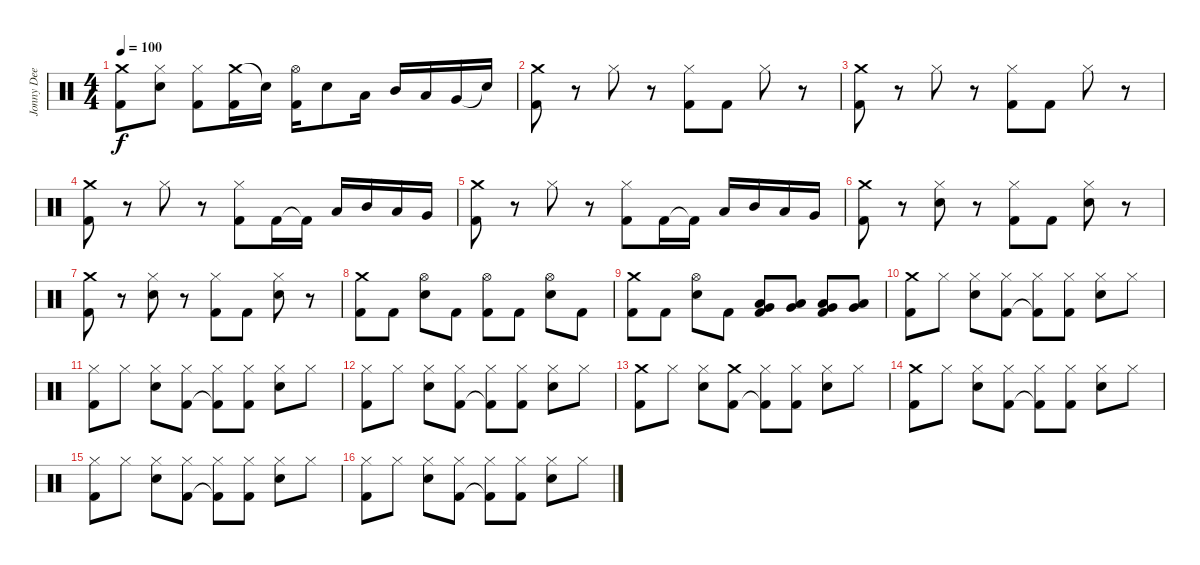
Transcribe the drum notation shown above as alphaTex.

\track ("Jonny Dee" "Jonny Dee") {instrument percussion}
\staff {score}
\articulation defaults
\ts (4 4)
\tempo 100
\clef neutral
\ks c
("Crash medium (hit)" "Kick (hit) 2").8{dy f} ("Hi-Hat (closed)" "Snare (hit) 2").8 ("Hi-Hat (closed)" "Kick (hit) 2").8 ("Crash medium (hit)" "Kick (hit) 2").16 "Snare (hit)"{t}.16 ("Hi-Hat (open)" "Kick (hit) 2").16 "Snare (hit) 2".8 "Low Tom (hit)".16 "Mid Tom (hit)".16 "Low Tom (hit)".16 "Very Low Tom (hit)".16 "Snare (hit)"{t}.16 |
("Crash medium (hit)" "Kick (hit) 2").8 r.8 "Hi-Hat (closed)".8 r.8 ("Hi-Hat (closed)" "Kick (hit) 2").8 "Kick (hit) 2".8 "Hi-Hat (closed)".8 r.8 |
("Crash medium (hit)" "Kick (hit) 2").8 r.8 "Hi-Hat (closed)".8 r.8 ("Hi-Hat (closed)" "Kick (hit) 2").8 "Kick (hit) 2".8 "Hi-Hat (closed)".8 r.8 |
("Crash medium (hit)" "Kick (hit) 2").8 r.8 "Hi-Hat (closed)".8 r.8 ("Hi-Hat (closed)" "Kick (hit) 2").8 "Kick (hit) 2".16 "Kick (hit) 2"{t}.16 "Low Tom (hit)".16 "Mid Tom (hit)".16 "Low Tom (hit)".16 "Very Low Tom (hit)".16 |
("Crash medium (hit)" "Kick (hit) 2").8 r.8 "Hi-Hat (closed)".8 r.8 ("Hi-Hat (closed)" "Kick (hit) 2").8 "Kick (hit) 2".16 "Kick (hit) 2"{t}.16 "Low Tom (hit)".16 "Mid Tom (hit)".16 "Low Tom (hit)".16 "Very Low Tom (hit)".16 |
("Crash medium (hit)" "Kick (hit) 2").8 r.8 ("Hi-Hat (closed)" "Snare (hit) 2").8 r.8 ("Hi-Hat (closed)" "Kick (hit) 2").8 "Kick (hit) 2".8 ("Hi-Hat (closed)" "Snare (hit) 2").8 r.8 |
("Crash medium (hit)" "Kick (hit) 2").8 r.8 ("Hi-Hat (closed)" "Snare (hit) 2").8 r.8 ("Hi-Hat (closed)" "Kick (hit) 2").8 "Kick (hit) 2".8 ("Hi-Hat (closed)" "Snare (hit) 2").8 r.8 |
("Crash medium (hit)" "Kick (hit) 2").8 "Kick (hit) 2".8 ("Hi-Hat (open)" "Snare (hit) 2").8 "Kick (hit) 2".8 ("Hi-Hat (open)" "Kick (hit) 2").8 "Kick (hit) 2".8 ("Hi-Hat (open)" "Snare (hit) 2").8 "Kick (hit) 2".8 |
("Crash medium (hit)" "Kick (hit) 2").8 "Kick (hit) 2".8 ("Hi-Hat (open)" "Snare (hit) 2").8 "Kick (hit) 2".8 ("Very Low Tom (hit)" "Low Tom (hit)" "Kick (hit) 2").8 ("Very Low Tom (hit)" "Low Tom (hit)").8 ("Very Low Tom (hit)" "Low Tom (hit)" "Kick (hit) 2").8 ("Very Low Tom (hit)" "Low Tom (hit)").8 |
("Crash medium (hit)" "Kick (hit) 2").8 "Hi-Hat (closed)".8 ("Hi-Hat (closed)" "Snare (hit) 2").8 ("Hi-Hat (closed)" "Kick (hit) 2").8 ("Hi-Hat (closed)" "Kick (hit) 2"{t}).8 ("Hi-Hat (closed)" "Kick (hit) 2").8 ("Hi-Hat (closed)" "Snare (hit) 2").8 "Hi-Hat (closed)".8 |
("Hi-Hat (closed)" "Kick (hit) 2").8 "Hi-Hat (closed)".8 ("Hi-Hat (closed)" "Snare (hit) 2").8 ("Hi-Hat (closed)" "Kick (hit) 2").8 ("Hi-Hat (closed)" "Kick (hit) 2"{t}).8 ("Hi-Hat (closed)" "Kick (hit) 2").8 ("Hi-Hat (closed)" "Snare (hit) 2").8 "Hi-Hat (closed)".8 |
("Hi-Hat (closed)" "Kick (hit) 2").8 "Hi-Hat (closed)".8 ("Hi-Hat (closed)" "Snare (hit) 2").8 ("Hi-Hat (closed)" "Kick (hit) 2").8 ("Hi-Hat (closed)" "Kick (hit) 2"{t}).8 ("Hi-Hat (closed)" "Kick (hit) 2").8 ("Hi-Hat (closed)" "Snare (hit) 2").8 "Hi-Hat (closed)".8 |
("Crash medium (hit)" "Kick (hit) 2").8 "Hi-Hat (closed)".8 ("Hi-Hat (closed)" "Snare (hit) 2").8 ("Crash medium (hit)" "Kick (hit) 2").8 ("Hi-Hat (closed)" "Kick (hit) 2"{t}).8 ("Hi-Hat (closed)" "Kick (hit) 2").8 ("Hi-Hat (closed)" "Snare (hit) 2").8 "Hi-Hat (closed)".8 |
("Crash medium (hit)" "Kick (hit) 2").8 "Hi-Hat (closed)".8 ("Hi-Hat (closed)" "Snare (hit) 2").8 ("Hi-Hat (closed)" "Kick (hit) 2").8 ("Hi-Hat (closed)" "Kick (hit) 2"{t}).8 ("Hi-Hat (closed)" "Kick (hit) 2").8 ("Hi-Hat (closed)" "Snare (hit) 2").8 "Hi-Hat (closed)".8 |
("Hi-Hat (closed)" "Kick (hit) 2").8 "Hi-Hat (closed)".8 ("Hi-Hat (closed)" "Snare (hit) 2").8 ("Hi-Hat (closed)" "Kick (hit) 2").8 ("Hi-Hat (closed)" "Kick (hit) 2"{t}).8 ("Hi-Hat (closed)" "Kick (hit) 2").8 ("Hi-Hat (closed)" "Snare (hit) 2").8 "Hi-Hat (closed)".8 |
("Hi-Hat (closed)" "Kick (hit) 2").8 "Hi-Hat (closed)".8 ("Hi-Hat (closed)" "Snare (hit) 2").8 ("Hi-Hat (closed)" "Kick (hit) 2").8 ("Hi-Hat (closed)" "Kick (hit) 2"{t}).8 ("Hi-Hat (closed)" "Kick (hit) 2").8 ("Hi-Hat (closed)" "Snare (hit) 2").8 "Hi-Hat (closed)".8
